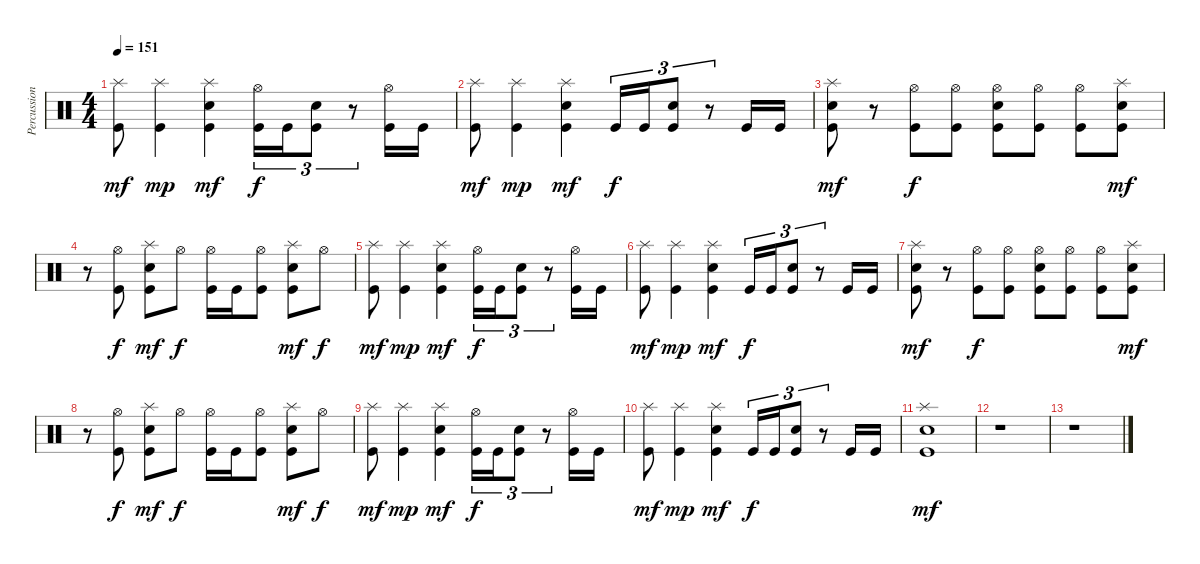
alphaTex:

\track ("Percussion" "Percussion") {instrument percussion}
\staff {score}
\articulation defaults
\ts (4 4)
\tempo 151
\clef neutral
\ks c
("Splash (hit)" "Kick (hit)").8{dy mf} ("Splash (hit)" "Kick (hit)").4{dy mp} ("Splash (hit)" "Snare (hit) 2" "Kick (hit)").4{dy mf} ("Hi-Hat (open)" "Kick (hit)").16{tu (3 2) dy f} "Kick (hit)".16{tu (3 2)} ("Snare (hit) 2" "Kick (hit)").8{tu (3 2)} r.8{tu (3 2)} ("Hi-Hat (open)" "Kick (hit)").16 "Kick (hit)".16 |
("Splash (hit)" "Kick (hit)").8{dy mf} ("Splash (hit)" "Kick (hit)").4{dy mp} ("Splash (hit)" "Snare (hit) 2" "Kick (hit)").4{dy mf} "Kick (hit)".16{tu (3 2) dy f} "Kick (hit)".16{tu (3 2)} ("Snare (hit) 2" "Kick (hit)").8{tu (3 2)} r.8{tu (3 2)} "Kick (hit)".16 "Kick (hit)".16 |
("Splash (hit)" "Snare (hit) 2" "Kick (hit)").8{dy mf} r.8 ("Hi-Hat (open)" "Kick (hit)").8{dy f} ("Hi-Hat (open)" "Kick (hit)").8 ("Hi-Hat (open)" "Snare (hit) 2" "Kick (hit)").8 ("Hi-Hat (open)" "Kick (hit)").8 ("Hi-Hat (open)" "Kick (hit)").8 ("Splash (hit)" "Snare (hit) 2" "Kick (hit)").8{dy mf} |
r.8 ("Hi-Hat (open)" "Kick (hit)").8{dy f} ("Splash (hit)" "Snare (hit) 2" "Kick (hit)").8{dy mf} "Hi-Hat (open)".8{dy f} ("Hi-Hat (open)" "Kick (hit)").16 "Kick (hit)".16 ("Hi-Hat (open)" "Kick (hit)").8 ("Splash (hit)" "Snare (hit) 2" "Kick (hit)").8{dy mf} "Hi-Hat (open)".8{dy f} |
("Splash (hit)" "Kick (hit)").8{dy mf} ("Splash (hit)" "Kick (hit)").4{dy mp} ("Splash (hit)" "Snare (hit) 2" "Kick (hit)").4{dy mf} ("Hi-Hat (open)" "Kick (hit)").16{tu (3 2) dy f} "Kick (hit)".16{tu (3 2)} ("Snare (hit) 2" "Kick (hit)").8{tu (3 2)} r.8{tu (3 2)} ("Hi-Hat (open)" "Kick (hit)").16 "Kick (hit)".16 |
("Splash (hit)" "Kick (hit)").8{dy mf} ("Splash (hit)" "Kick (hit)").4{dy mp} ("Splash (hit)" "Snare (hit) 2" "Kick (hit)").4{dy mf} "Kick (hit)".16{tu (3 2) dy f} "Kick (hit)".16{tu (3 2)} ("Snare (hit) 2" "Kick (hit)").8{tu (3 2)} r.8{tu (3 2)} "Kick (hit)".16 "Kick (hit)".16 |
("Splash (hit)" "Snare (hit) 2" "Kick (hit)").8{dy mf} r.8 ("Hi-Hat (open)" "Kick (hit)").8{dy f} ("Hi-Hat (open)" "Kick (hit)").8 ("Hi-Hat (open)" "Snare (hit) 2" "Kick (hit)").8 ("Hi-Hat (open)" "Kick (hit)").8 ("Hi-Hat (open)" "Kick (hit)").8 ("Splash (hit)" "Snare (hit) 2" "Kick (hit)").8{dy mf} |
r.8 ("Hi-Hat (open)" "Kick (hit)").8{dy f} ("Splash (hit)" "Snare (hit) 2" "Kick (hit)").8{dy mf} "Hi-Hat (open)".8{dy f} ("Hi-Hat (open)" "Kick (hit)").16 "Kick (hit)".16 ("Hi-Hat (open)" "Kick (hit)").8 ("Splash (hit)" "Snare (hit) 2" "Kick (hit)").8{dy mf} "Hi-Hat (open)".8{dy f} |
("Splash (hit)" "Kick (hit)").8{dy mf} ("Splash (hit)" "Kick (hit)").4{dy mp} ("Splash (hit)" "Snare (hit) 2" "Kick (hit)").4{dy mf} ("Hi-Hat (open)" "Kick (hit)").16{tu (3 2) dy f} "Kick (hit)".16{tu (3 2)} ("Snare (hit) 2" "Kick (hit)").8{tu (3 2)} r.8{tu (3 2)} ("Hi-Hat (open)" "Kick (hit)").16 "Kick (hit)".16 |
("Splash (hit)" "Kick (hit)").8{dy mf} ("Splash (hit)" "Kick (hit)").4{dy mp} ("Splash (hit)" "Snare (hit) 2" "Kick (hit)").4{dy mf} "Kick (hit)".16{tu (3 2) dy f} "Kick (hit)".16{tu (3 2)} ("Snare (hit) 2" "Kick (hit)").8{tu (3 2)} r.8{tu (3 2)} "Kick (hit)".16 "Kick (hit)".16 |
("Splash (hit)" "Snare (hit) 2" "Kick (hit)").1{dy mf} |
r.1 |
r.1
